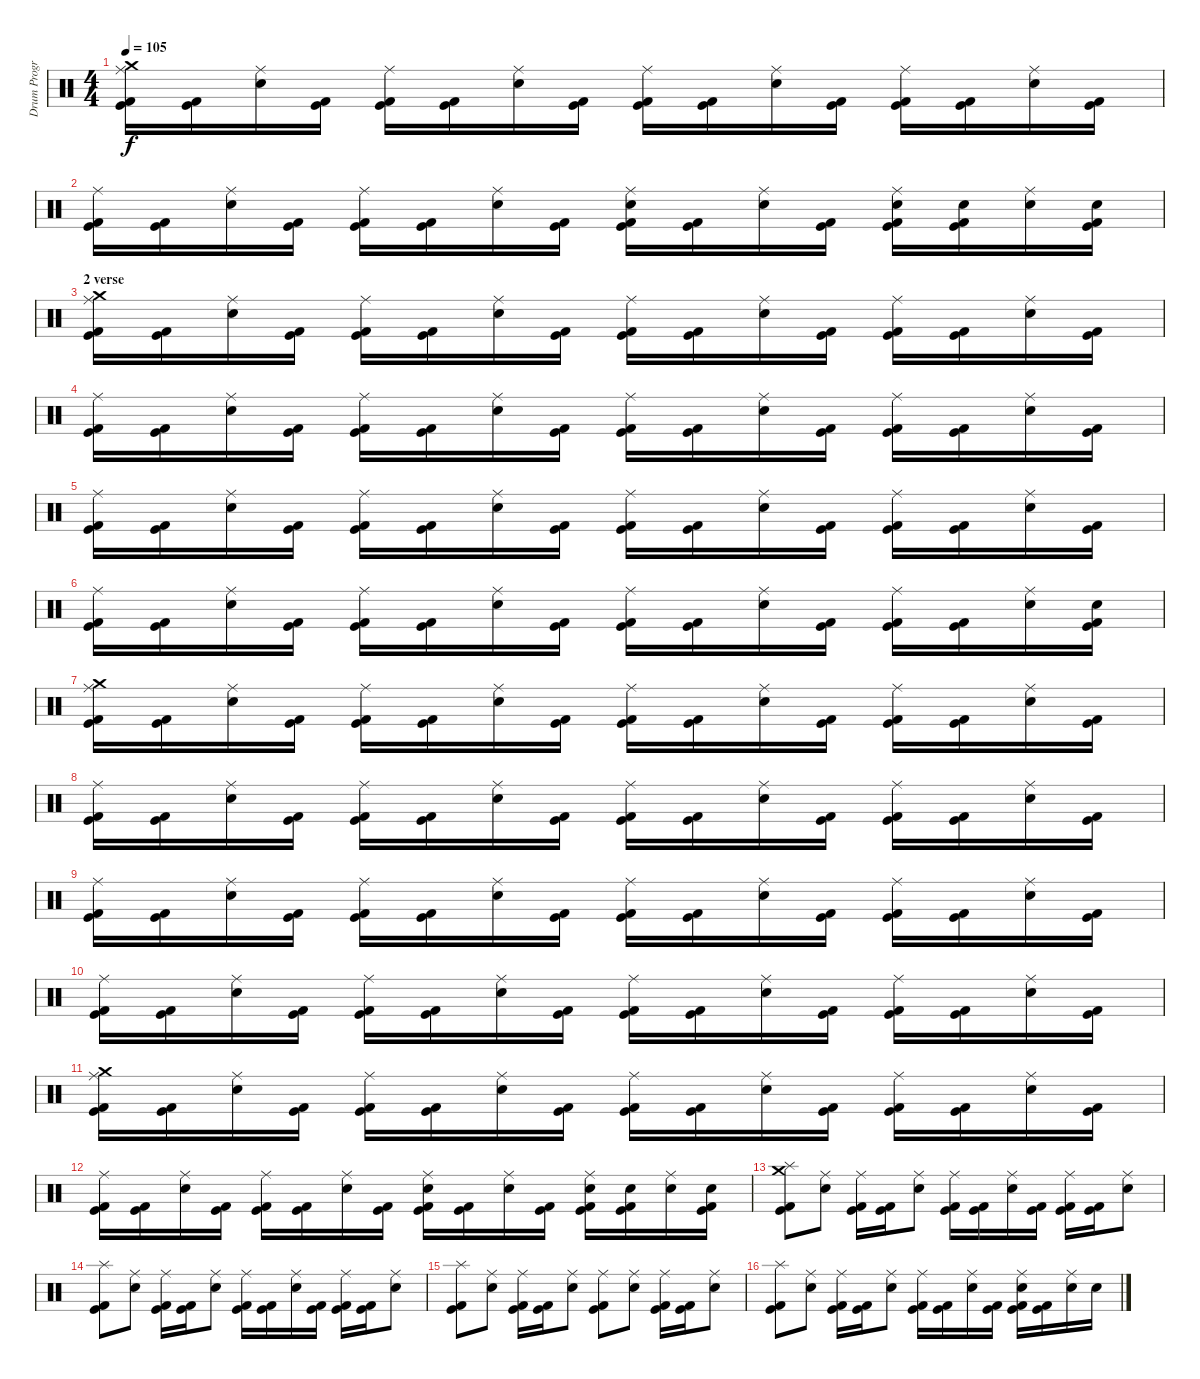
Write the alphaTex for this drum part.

\track ("Drum Program - BG" "Drum Progr") {instrument percussion}
\staff {score}
\articulation defaults
\ts (4 4)
\tempo 105
\clef neutral
\ks c
("Kick (hit)" "Kick (hit) 2" "Crash medium (hit)" "Ride (middle)").16{dy f} ("Kick (hit)" "Kick (hit) 2").16 ("Snare (hit) 2" "Ride (middle)").16 ("Kick (hit)" "Kick (hit) 2").16 ("Kick (hit)" "Kick (hit) 2" "Ride (middle)").16 ("Kick (hit)" "Kick (hit) 2").16 ("Snare (hit) 2" "Ride (middle)").16 ("Kick (hit)" "Kick (hit) 2").16 ("Kick (hit)" "Kick (hit) 2" "Ride (middle)").16 ("Kick (hit)" "Kick (hit) 2").16 ("Snare (hit) 2" "Ride (middle)").16 ("Kick (hit)" "Kick (hit) 2").16 ("Kick (hit)" "Kick (hit) 2" "Ride (middle)").16 ("Kick (hit)" "Kick (hit) 2").16 ("Snare (hit) 2" "Ride (middle)").16 ("Kick (hit)" "Kick (hit) 2").16 |
("Kick (hit)" "Kick (hit) 2" "Ride (middle)").16 ("Kick (hit)" "Kick (hit) 2").16 ("Snare (hit) 2" "Ride (middle)").16 ("Kick (hit)" "Kick (hit) 2").16 ("Kick (hit)" "Kick (hit) 2" "Ride (middle)").16 ("Kick (hit)" "Kick (hit) 2").16 ("Snare (hit) 2" "Ride (middle)").16 ("Kick (hit)" "Kick (hit) 2").16 ("Kick (hit)" "Kick (hit) 2" "Electric Snare (hit)" "Ride (middle)").16 ("Kick (hit)" "Kick (hit) 2").16 ("Electric Snare (hit)" "Ride (middle)").16 ("Kick (hit)" "Kick (hit) 2").16 ("Kick (hit)" "Kick (hit) 2" "Electric Snare (hit)" "Ride (middle)").16 ("Kick (hit)" "Kick (hit) 2" "Electric Snare (hit)").16 ("Electric Snare (hit)" "Ride (middle)").16 ("Kick (hit)" "Kick (hit) 2" "Electric Snare (hit)").16 |
\section ("" "2 verse")
("Kick (hit)" "Kick (hit) 2" "Crash medium (hit)" "Ride (middle)").16 ("Kick (hit)" "Kick (hit) 2").16 ("Snare (hit) 2" "Ride (middle)").16 ("Kick (hit)" "Kick (hit) 2").16 ("Kick (hit)" "Kick (hit) 2" "Ride (middle)").16 ("Kick (hit)" "Kick (hit) 2").16 ("Snare (hit) 2" "Ride (middle)").16 ("Kick (hit)" "Kick (hit) 2").16 ("Kick (hit)" "Kick (hit) 2" "Ride (middle)").16 ("Kick (hit)" "Kick (hit) 2").16 ("Snare (hit) 2" "Ride (middle)").16 ("Kick (hit)" "Kick (hit) 2").16 ("Kick (hit)" "Kick (hit) 2" "Ride (middle)").16 ("Kick (hit)" "Kick (hit) 2").16 ("Snare (hit) 2" "Ride (middle)").16 ("Kick (hit)" "Kick (hit) 2").16 |
("Kick (hit)" "Kick (hit) 2" "Ride (middle)").16 ("Kick (hit)" "Kick (hit) 2").16 ("Snare (hit) 2" "Ride (middle)").16 ("Kick (hit)" "Kick (hit) 2").16 ("Kick (hit)" "Kick (hit) 2" "Ride (middle)").16 ("Kick (hit)" "Kick (hit) 2").16 ("Snare (hit) 2" "Ride (middle)").16 ("Kick (hit)" "Kick (hit) 2").16 ("Kick (hit)" "Kick (hit) 2" "Ride (middle)").16 ("Kick (hit)" "Kick (hit) 2").16 ("Snare (hit) 2" "Ride (middle)").16 ("Kick (hit)" "Kick (hit) 2").16 ("Kick (hit)" "Kick (hit) 2" "Ride (middle)").16 ("Kick (hit)" "Kick (hit) 2").16 ("Snare (hit) 2" "Ride (middle)").16 ("Kick (hit)" "Kick (hit) 2").16 |
("Kick (hit)" "Kick (hit) 2" "Ride (middle)").16 ("Kick (hit)" "Kick (hit) 2").16 ("Snare (hit) 2" "Ride (middle)").16 ("Kick (hit)" "Kick (hit) 2").16 ("Kick (hit)" "Kick (hit) 2" "Ride (middle)").16 ("Kick (hit)" "Kick (hit) 2").16 ("Snare (hit) 2" "Ride (middle)").16 ("Kick (hit)" "Kick (hit) 2").16 ("Kick (hit)" "Kick (hit) 2" "Ride (middle)").16 ("Kick (hit)" "Kick (hit) 2").16 ("Snare (hit) 2" "Ride (middle)").16 ("Kick (hit)" "Kick (hit) 2").16 ("Kick (hit)" "Kick (hit) 2" "Ride (middle)").16 ("Kick (hit)" "Kick (hit) 2").16 ("Snare (hit) 2" "Ride (middle)").16 ("Kick (hit)" "Kick (hit) 2").16 |
("Kick (hit)" "Kick (hit) 2" "Ride (middle)").16 ("Kick (hit)" "Kick (hit) 2").16 ("Snare (hit) 2" "Ride (middle)").16 ("Kick (hit)" "Kick (hit) 2").16 ("Kick (hit)" "Kick (hit) 2" "Ride (middle)").16 ("Kick (hit)" "Kick (hit) 2").16 ("Snare (hit) 2" "Ride (middle)").16 ("Kick (hit)" "Kick (hit) 2").16 ("Kick (hit)" "Kick (hit) 2" "Ride (middle)").16 ("Kick (hit)" "Kick (hit) 2").16 ("Snare (hit) 2" "Ride (middle)").16 ("Kick (hit)" "Kick (hit) 2").16 ("Kick (hit)" "Kick (hit) 2" "Ride (middle)").16 ("Kick (hit)" "Kick (hit) 2").16 ("Snare (hit) 2" "Ride (middle)").16 ("Kick (hit)" "Kick (hit) 2" "Snare (hit) 2").16 |
("Kick (hit)" "Kick (hit) 2" "Crash medium (hit)" "Ride (middle)").16 ("Kick (hit)" "Kick (hit) 2").16 ("Snare (hit) 2" "Ride (middle)").16 ("Kick (hit)" "Kick (hit) 2").16 ("Kick (hit)" "Kick (hit) 2" "Ride (middle)").16 ("Kick (hit)" "Kick (hit) 2").16 ("Snare (hit) 2" "Ride (middle)").16 ("Kick (hit)" "Kick (hit) 2").16 ("Kick (hit)" "Kick (hit) 2" "Ride (middle)").16 ("Kick (hit)" "Kick (hit) 2").16 ("Snare (hit) 2" "Ride (middle)").16 ("Kick (hit)" "Kick (hit) 2").16 ("Kick (hit)" "Kick (hit) 2" "Ride (middle)").16 ("Kick (hit)" "Kick (hit) 2").16 ("Snare (hit) 2" "Ride (middle)").16 ("Kick (hit)" "Kick (hit) 2").16 |
("Kick (hit)" "Kick (hit) 2" "Ride (middle)").16 ("Kick (hit)" "Kick (hit) 2").16 ("Snare (hit) 2" "Ride (middle)").16 ("Kick (hit)" "Kick (hit) 2").16 ("Kick (hit)" "Kick (hit) 2" "Ride (middle)").16 ("Kick (hit)" "Kick (hit) 2").16 ("Snare (hit) 2" "Ride (middle)").16 ("Kick (hit)" "Kick (hit) 2").16 ("Kick (hit)" "Kick (hit) 2" "Ride (middle)").16 ("Kick (hit)" "Kick (hit) 2").16 ("Snare (hit) 2" "Ride (middle)").16 ("Kick (hit)" "Kick (hit) 2").16 ("Kick (hit)" "Kick (hit) 2" "Ride (middle)").16 ("Kick (hit)" "Kick (hit) 2").16 ("Snare (hit) 2" "Ride (middle)").16 ("Kick (hit)" "Kick (hit) 2").16 |
("Kick (hit)" "Kick (hit) 2" "Ride (middle)").16 ("Kick (hit)" "Kick (hit) 2").16 ("Snare (hit) 2" "Ride (middle)").16 ("Kick (hit)" "Kick (hit) 2").16 ("Kick (hit)" "Kick (hit) 2" "Ride (middle)").16 ("Kick (hit)" "Kick (hit) 2").16 ("Snare (hit) 2" "Ride (middle)").16 ("Kick (hit)" "Kick (hit) 2").16 ("Kick (hit)" "Kick (hit) 2" "Ride (middle)").16 ("Kick (hit)" "Kick (hit) 2").16 ("Snare (hit) 2" "Ride (middle)").16 ("Kick (hit)" "Kick (hit) 2").16 ("Kick (hit)" "Kick (hit) 2" "Ride (middle)").16 ("Kick (hit)" "Kick (hit) 2").16 ("Snare (hit) 2" "Ride (middle)").16 ("Kick (hit)" "Kick (hit) 2").16 |
("Kick (hit)" "Kick (hit) 2" "Ride (middle)").16 ("Kick (hit)" "Kick (hit) 2").16 ("Snare (hit) 2" "Ride (middle)").16 ("Kick (hit)" "Kick (hit) 2").16 ("Kick (hit)" "Kick (hit) 2" "Ride (middle)").16 ("Kick (hit)" "Kick (hit) 2").16 ("Snare (hit) 2" "Ride (middle)").16 ("Kick (hit)" "Kick (hit) 2").16 ("Kick (hit)" "Kick (hit) 2" "Ride (middle)").16 ("Kick (hit)" "Kick (hit) 2").16 ("Snare (hit) 2" "Ride (middle)").16 ("Kick (hit)" "Kick (hit) 2").16 ("Kick (hit)" "Kick (hit) 2" "Ride (middle)").16 ("Kick (hit)" "Kick (hit) 2").16 ("Snare (hit) 2" "Ride (middle)").16 ("Kick (hit)" "Kick (hit) 2").16 |
("Kick (hit)" "Kick (hit) 2" "Crash medium (hit)" "Ride (middle)").16 ("Kick (hit)" "Kick (hit) 2").16 ("Snare (hit) 2" "Ride (middle)").16 ("Kick (hit)" "Kick (hit) 2").16 ("Kick (hit)" "Kick (hit) 2" "Ride (middle)").16 ("Kick (hit)" "Kick (hit) 2").16 ("Snare (hit) 2" "Ride (middle)").16 ("Kick (hit)" "Kick (hit) 2").16 ("Kick (hit)" "Kick (hit) 2" "Ride (middle)").16 ("Kick (hit)" "Kick (hit) 2").16 ("Snare (hit) 2" "Ride (middle)").16 ("Kick (hit)" "Kick (hit) 2").16 ("Kick (hit)" "Kick (hit) 2" "Ride (middle)").16 ("Kick (hit)" "Kick (hit) 2").16 ("Snare (hit) 2" "Ride (middle)").16 ("Kick (hit)" "Kick (hit) 2").16 |
("Kick (hit)" "Kick (hit) 2" "Ride (middle)").16 ("Kick (hit)" "Kick (hit) 2").16 ("Snare (hit) 2" "Ride (middle)").16 ("Kick (hit)" "Kick (hit) 2").16 ("Kick (hit)" "Kick (hit) 2" "Ride (middle)").16 ("Kick (hit)" "Kick (hit) 2").16 ("Snare (hit) 2" "Ride (middle)").16 ("Kick (hit)" "Kick (hit) 2").16 ("Kick (hit)" "Kick (hit) 2" "Electric Snare (hit)" "Ride (middle)").16 ("Kick (hit)" "Kick (hit) 2").16 ("Electric Snare (hit)" "Ride (middle)").16 ("Kick (hit)" "Kick (hit) 2").16 ("Kick (hit)" "Kick (hit) 2" "Electric Snare (hit)" "Ride (middle)").16 ("Kick (hit)" "Kick (hit) 2" "Electric Snare (hit)").16 ("Electric Snare (hit)" "Ride (middle)").16 ("Kick (hit)" "Kick (hit) 2" "Electric Snare (hit)").16 |
("Kick (hit)" "Kick (hit) 2" "Splash (hit)" "Crash medium (hit)").8 ("Snare (hit) 2" "Ride (middle)").8 ("Kick (hit)" "Kick (hit) 2" "Ride (middle)").16 ("Kick (hit)" "Kick (hit) 2").16 ("Snare (hit) 2" "Ride (middle)").8 ("Kick (hit)" "Kick (hit) 2" "Ride (middle)").16 ("Kick (hit)" "Kick (hit) 2").16 ("Snare (hit) 2" "Ride (middle)").16 ("Kick (hit)" "Kick (hit) 2").16 ("Kick (hit)" "Kick (hit) 2" "Ride (middle)").16 ("Kick (hit)" "Kick (hit) 2").16 ("Snare (hit) 2" "Ride (middle)").8 |
("Kick (hit)" "Kick (hit) 2" "Splash (hit)").8 ("Snare (hit) 2" "Ride (middle)").8 ("Kick (hit)" "Kick (hit) 2" "Ride (middle)").16 ("Kick (hit)" "Kick (hit) 2").16 ("Snare (hit) 2" "Ride (middle)").8 ("Kick (hit)" "Kick (hit) 2" "Ride (middle)").16 ("Kick (hit)" "Kick (hit) 2").16 ("Snare (hit) 2" "Ride (middle)").16 ("Kick (hit)" "Kick (hit) 2").16 ("Kick (hit)" "Kick (hit) 2" "Ride (middle)").16 ("Kick (hit)" "Kick (hit) 2").16 ("Snare (hit) 2" "Ride (middle)").8 |
("Kick (hit)" "Kick (hit) 2" "Splash (hit)").8 ("Snare (hit) 2" "Ride (middle)").8 ("Kick (hit)" "Kick (hit) 2" "Ride (middle)").16 ("Kick (hit)" "Kick (hit) 2").16 ("Snare (hit) 2" "Ride (middle)").8 ("Kick (hit)" "Kick (hit) 2" "Ride (middle)").8 ("Snare (hit) 2" "Ride (middle)").8 ("Kick (hit)" "Kick (hit) 2" "Ride (middle)").16 ("Kick (hit)" "Kick (hit) 2").16 ("Snare (hit) 2" "Ride (middle)").8 |
("Kick (hit)" "Kick (hit) 2" "Splash (hit)").8 ("Snare (hit) 2" "Ride (middle)").8 ("Kick (hit)" "Kick (hit) 2" "Ride (middle)").16 ("Kick (hit)" "Kick (hit) 2").16 ("Snare (hit) 2" "Ride (middle)").8 ("Kick (hit)" "Kick (hit) 2" "Ride (middle)").16 ("Kick (hit)" "Kick (hit) 2").16 ("Electric Snare (hit)" "Ride (middle)").16 ("Kick (hit)" "Kick (hit) 2").16 ("Kick (hit)" "Kick (hit) 2" "Electric Snare (hit)" "Ride (middle)").16 ("Kick (hit)" "Kick (hit) 2").16 ("Electric Snare (hit)" "Ride (middle)").16 "Electric Snare (hit)".16
